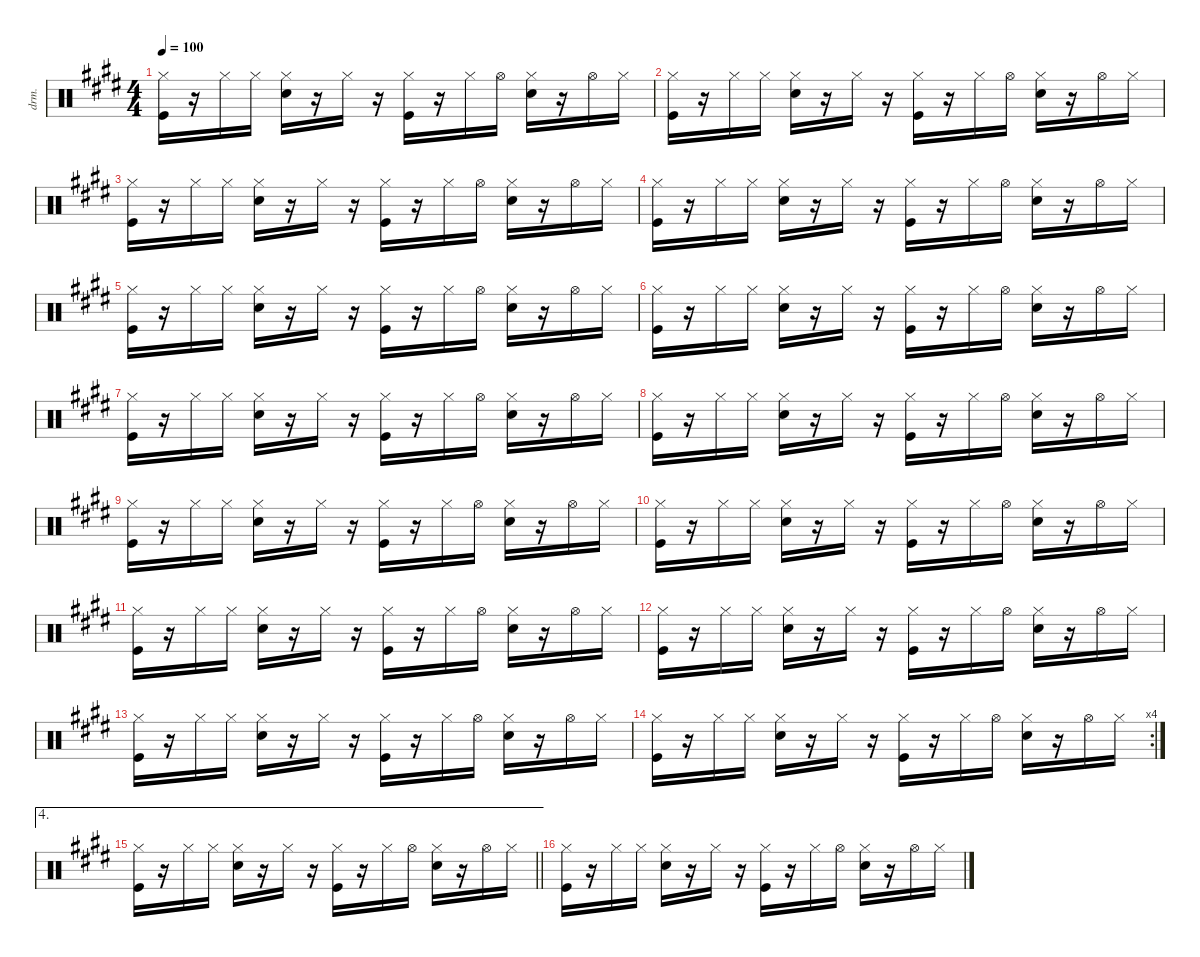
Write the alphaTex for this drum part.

\defaultSystemsLayout 4
\hideDynamics
\bracketExtendMode nobrackets
\otherSystemsTrackNameOrientation horizontal
\track ("Drums" "drm.") {instrument percussion}
\staff {score}
\articulation defaults
\ts (4 4)
\tempo 100
\clef neutral
\ks e
("Hi-Hat (closed)"{acc forcenatural} "Kick (hit)"{acc forcenatural}).16{dy f beam Down} r.16{beam Down} "Hi-Hat (closed)"{acc forcenatural}.16{beam Down} "Hi-Hat (closed)"{acc forcenatural}.16{beam Down} ("Hi-Hat (closed)"{acc forcenatural} "Snare (hit) 2"{acc forcenatural}).16{beam Down} r.16{beam Down} "Hi-Hat (closed)"{acc forcenatural}.16{beam Down} r.16{beam Down} ("Hi-Hat (closed)"{acc forcenatural} "Kick (hit)"{acc forcenatural}).16{beam Down} r.16{beam Down} "Hi-Hat (closed)"{acc forcenatural}.16{beam Down} "Hi-Hat (open)"{acc forcenatural}.16{beam Down} ("Hi-Hat (closed)"{acc forcenatural} "Snare (hit) 2"{acc forcenatural}).16{beam Down} r.16{beam Down} "Hi-Hat (open)"{acc forcenatural}.16{beam Down} "Hi-Hat (closed)"{acc forcenatural}.16{beam Down} |
("Hi-Hat (closed)"{acc forcenatural} "Kick (hit)"{acc forcenatural}).16{beam Down} r.16{beam Down} "Hi-Hat (closed)"{acc forcenatural}.16{beam Down} "Hi-Hat (closed)"{acc forcenatural}.16{beam Down} ("Hi-Hat (closed)"{acc forcenatural} "Snare (hit) 2"{acc forcenatural}).16{beam Down} r.16{beam Down} "Hi-Hat (closed)"{acc forcenatural}.16{beam Down} r.16{beam Down} ("Hi-Hat (closed)"{acc forcenatural} "Kick (hit)"{acc forcenatural}).16{beam Down} r.16{beam Down} "Hi-Hat (closed)"{acc forcenatural}.16{beam Down} "Hi-Hat (open)"{acc forcenatural}.16{beam Down} ("Hi-Hat (closed)"{acc forcenatural} "Snare (hit) 2"{acc forcenatural}).16{beam Down} r.16{beam Down} "Hi-Hat (open)"{acc forcenatural}.16{beam Down} "Hi-Hat (closed)"{acc forcenatural}.16{beam Down} |
("Hi-Hat (closed)"{acc forcenatural} "Kick (hit)"{acc forcenatural}).16{beam Down} r.16{beam Down} "Hi-Hat (closed)"{acc forcenatural}.16{beam Down} "Hi-Hat (closed)"{acc forcenatural}.16{beam Down} ("Hi-Hat (closed)"{acc forcenatural} "Snare (hit) 2"{acc forcenatural}).16{beam Down} r.16{beam Down} "Hi-Hat (closed)"{acc forcenatural}.16{beam Down} r.16{beam Down} ("Hi-Hat (closed)"{acc forcenatural} "Kick (hit)"{acc forcenatural}).16{beam Down} r.16{beam Down} "Hi-Hat (closed)"{acc forcenatural}.16{beam Down} "Hi-Hat (open)"{acc forcenatural}.16{beam Down} ("Hi-Hat (closed)"{acc forcenatural} "Snare (hit) 2"{acc forcenatural}).16{beam Down} r.16{beam Down} "Hi-Hat (open)"{acc forcenatural}.16{beam Down} "Hi-Hat (closed)"{acc forcenatural}.16{beam Down} |
("Hi-Hat (closed)"{acc forcenatural} "Kick (hit)"{acc forcenatural}).16{beam Down} r.16{beam Down} "Hi-Hat (closed)"{acc forcenatural}.16{beam Down} "Hi-Hat (closed)"{acc forcenatural}.16{beam Down} ("Hi-Hat (closed)"{acc forcenatural} "Snare (hit) 2"{acc forcenatural}).16{beam Down} r.16{beam Down} "Hi-Hat (closed)"{acc forcenatural}.16{beam Down} r.16{beam Down} ("Hi-Hat (closed)"{acc forcenatural} "Kick (hit)"{acc forcenatural}).16{beam Down} r.16{beam Down} "Hi-Hat (closed)"{acc forcenatural}.16{beam Down} "Hi-Hat (open)"{acc forcenatural}.16{beam Down} ("Hi-Hat (closed)"{acc forcenatural} "Snare (hit) 2"{acc forcenatural}).16{beam Down} r.16{beam Down} "Hi-Hat (open)"{acc forcenatural}.16{beam Down} "Hi-Hat (closed)"{acc forcenatural}.16{beam Down} |
("Hi-Hat (closed)"{acc forcenatural} "Kick (hit)"{acc forcenatural}).16{beam Down} r.16{beam Down} "Hi-Hat (closed)"{acc forcenatural}.16{beam Down} "Hi-Hat (closed)"{acc forcenatural}.16{beam Down} ("Hi-Hat (closed)"{acc forcenatural} "Snare (hit) 2"{acc forcenatural}).16{beam Down} r.16{beam Down} "Hi-Hat (closed)"{acc forcenatural}.16{beam Down} r.16{beam Down} ("Hi-Hat (closed)"{acc forcenatural} "Kick (hit)"{acc forcenatural}).16{beam Down} r.16{beam Down} "Hi-Hat (closed)"{acc forcenatural}.16{beam Down} "Hi-Hat (open)"{acc forcenatural}.16{beam Down} ("Hi-Hat (closed)"{acc forcenatural} "Snare (hit) 2"{acc forcenatural}).16{beam Down} r.16{beam Down} "Hi-Hat (open)"{acc forcenatural}.16{beam Down} "Hi-Hat (closed)"{acc forcenatural}.16{beam Down} |
("Hi-Hat (closed)"{acc forcenatural} "Kick (hit)"{acc forcenatural}).16{beam Down} r.16{beam Down} "Hi-Hat (closed)"{acc forcenatural}.16{beam Down} "Hi-Hat (closed)"{acc forcenatural}.16{beam Down} ("Hi-Hat (closed)"{acc forcenatural} "Snare (hit) 2"{acc forcenatural}).16{beam Down} r.16{beam Down} "Hi-Hat (closed)"{acc forcenatural}.16{beam Down} r.16{beam Down} ("Hi-Hat (closed)"{acc forcenatural} "Kick (hit)"{acc forcenatural}).16{beam Down} r.16{beam Down} "Hi-Hat (closed)"{acc forcenatural}.16{beam Down} "Hi-Hat (open)"{acc forcenatural}.16{beam Down} ("Hi-Hat (closed)"{acc forcenatural} "Snare (hit) 2"{acc forcenatural}).16{beam Down} r.16{beam Down} "Hi-Hat (open)"{acc forcenatural}.16{beam Down} "Hi-Hat (closed)"{acc forcenatural}.16{beam Down} |
("Hi-Hat (closed)"{acc forcenatural} "Kick (hit)"{acc forcenatural}).16{beam Down} r.16{beam Down} "Hi-Hat (closed)"{acc forcenatural}.16{beam Down} "Hi-Hat (closed)"{acc forcenatural}.16{beam Down} ("Hi-Hat (closed)"{acc forcenatural} "Snare (hit) 2"{acc forcenatural}).16{beam Down} r.16{beam Down} "Hi-Hat (closed)"{acc forcenatural}.16{beam Down} r.16{beam Down} ("Hi-Hat (closed)"{acc forcenatural} "Kick (hit)"{acc forcenatural}).16{beam Down} r.16{beam Down} "Hi-Hat (closed)"{acc forcenatural}.16{beam Down} "Hi-Hat (open)"{acc forcenatural}.16{beam Down} ("Hi-Hat (closed)"{acc forcenatural} "Snare (hit) 2"{acc forcenatural}).16{beam Down} r.16{beam Down} "Hi-Hat (open)"{acc forcenatural}.16{beam Down} "Hi-Hat (closed)"{acc forcenatural}.16{beam Down} |
("Hi-Hat (closed)"{acc forcenatural} "Kick (hit)"{acc forcenatural}).16{beam Down} r.16{beam Down} "Hi-Hat (closed)"{acc forcenatural}.16{beam Down} "Hi-Hat (closed)"{acc forcenatural}.16{beam Down} ("Hi-Hat (closed)"{acc forcenatural} "Snare (hit) 2"{acc forcenatural}).16{beam Down} r.16{beam Down} "Hi-Hat (closed)"{acc forcenatural}.16{beam Down} r.16{beam Down} ("Hi-Hat (closed)"{acc forcenatural} "Kick (hit)"{acc forcenatural}).16{beam Down} r.16{beam Down} "Hi-Hat (closed)"{acc forcenatural}.16{beam Down} "Hi-Hat (open)"{acc forcenatural}.16{beam Down} ("Hi-Hat (closed)"{acc forcenatural} "Snare (hit) 2"{acc forcenatural}).16{beam Down} r.16{beam Down} "Hi-Hat (open)"{acc forcenatural}.16{beam Down} "Hi-Hat (closed)"{acc forcenatural}.16{beam Down} |
("Hi-Hat (closed)"{acc forcenatural} "Kick (hit)"{acc forcenatural}).16{beam Down} r.16{beam Down} "Hi-Hat (closed)"{acc forcenatural}.16{beam Down} "Hi-Hat (closed)"{acc forcenatural}.16{beam Down} ("Hi-Hat (closed)"{acc forcenatural} "Snare (hit) 2"{acc forcenatural}).16{beam Down} r.16{beam Down} "Hi-Hat (closed)"{acc forcenatural}.16{beam Down} r.16{beam Down} ("Hi-Hat (closed)"{acc forcenatural} "Kick (hit)"{acc forcenatural}).16{beam Down} r.16{beam Down} "Hi-Hat (closed)"{acc forcenatural}.16{beam Down} "Hi-Hat (open)"{acc forcenatural}.16{beam Down} ("Hi-Hat (closed)"{acc forcenatural} "Snare (hit) 2"{acc forcenatural}).16{beam Down} r.16{beam Down} "Hi-Hat (open)"{acc forcenatural}.16{beam Down} "Hi-Hat (closed)"{acc forcenatural}.16{beam Down} |
("Hi-Hat (closed)"{acc forcenatural} "Kick (hit)"{acc forcenatural}).16{beam Down} r.16{beam Down} "Hi-Hat (closed)"{acc forcenatural}.16{beam Down} "Hi-Hat (closed)"{acc forcenatural}.16{beam Down} ("Hi-Hat (closed)"{acc forcenatural} "Snare (hit) 2"{acc forcenatural}).16{beam Down} r.16{beam Down} "Hi-Hat (closed)"{acc forcenatural}.16{beam Down} r.16{beam Down} ("Hi-Hat (closed)"{acc forcenatural} "Kick (hit)"{acc forcenatural}).16{beam Down} r.16{beam Down} "Hi-Hat (closed)"{acc forcenatural}.16{beam Down} "Hi-Hat (open)"{acc forcenatural}.16{beam Down} ("Hi-Hat (closed)"{acc forcenatural} "Snare (hit) 2"{acc forcenatural}).16{beam Down} r.16{beam Down} "Hi-Hat (open)"{acc forcenatural}.16{beam Down} "Hi-Hat (closed)"{acc forcenatural}.16{beam Down} |
("Hi-Hat (closed)"{acc forcenatural} "Kick (hit)"{acc forcenatural}).16{beam Down} r.16{beam Down} "Hi-Hat (closed)"{acc forcenatural}.16{beam Down} "Hi-Hat (closed)"{acc forcenatural}.16{beam Down} ("Hi-Hat (closed)"{acc forcenatural} "Snare (hit) 2"{acc forcenatural}).16{beam Down} r.16{beam Down} "Hi-Hat (closed)"{acc forcenatural}.16{beam Down} r.16{beam Down} ("Hi-Hat (closed)"{acc forcenatural} "Kick (hit)"{acc forcenatural}).16{beam Down} r.16{beam Down} "Hi-Hat (closed)"{acc forcenatural}.16{beam Down} "Hi-Hat (open)"{acc forcenatural}.16{beam Down} ("Hi-Hat (closed)"{acc forcenatural} "Snare (hit) 2"{acc forcenatural}).16{beam Down} r.16{beam Down} "Hi-Hat (open)"{acc forcenatural}.16{beam Down} "Hi-Hat (closed)"{acc forcenatural}.16{beam Down} |
("Hi-Hat (closed)"{acc forcenatural} "Kick (hit)"{acc forcenatural}).16{beam Down} r.16{beam Down} "Hi-Hat (closed)"{acc forcenatural}.16{beam Down} "Hi-Hat (closed)"{acc forcenatural}.16{beam Down} ("Hi-Hat (closed)"{acc forcenatural} "Snare (hit) 2"{acc forcenatural}).16{beam Down} r.16{beam Down} "Hi-Hat (closed)"{acc forcenatural}.16{beam Down} r.16{beam Down} ("Hi-Hat (closed)"{acc forcenatural} "Kick (hit)"{acc forcenatural}).16{beam Down} r.16{beam Down} "Hi-Hat (closed)"{acc forcenatural}.16{beam Down} "Hi-Hat (open)"{acc forcenatural}.16{beam Down} ("Hi-Hat (closed)"{acc forcenatural} "Snare (hit) 2"{acc forcenatural}).16{beam Down} r.16{beam Down} "Hi-Hat (open)"{acc forcenatural}.16{beam Down} "Hi-Hat (closed)"{acc forcenatural}.16{beam Down} |
("Hi-Hat (closed)"{acc forcenatural} "Kick (hit)"{acc forcenatural}).16{beam Down} r.16{beam Down} "Hi-Hat (closed)"{acc forcenatural}.16{beam Down} "Hi-Hat (closed)"{acc forcenatural}.16{beam Down} ("Hi-Hat (closed)"{acc forcenatural} "Snare (hit) 2"{acc forcenatural}).16{beam Down} r.16{beam Down} "Hi-Hat (closed)"{acc forcenatural}.16{beam Down} r.16{beam Down} ("Hi-Hat (closed)"{acc forcenatural} "Kick (hit)"{acc forcenatural}).16{beam Down} r.16{beam Down} "Hi-Hat (closed)"{acc forcenatural}.16{beam Down} "Hi-Hat (open)"{acc forcenatural}.16{beam Down} ("Hi-Hat (closed)"{acc forcenatural} "Snare (hit) 2"{acc forcenatural}).16{beam Down} r.16{beam Down} "Hi-Hat (open)"{acc forcenatural}.16{beam Down} "Hi-Hat (closed)"{acc forcenatural}.16{beam Down} |
\rc 4
("Hi-Hat (closed)"{acc forcenatural} "Kick (hit)"{acc forcenatural}).16{beam Down} r.16{beam Down} "Hi-Hat (closed)"{acc forcenatural}.16{beam Down} "Hi-Hat (closed)"{acc forcenatural}.16{beam Down} ("Hi-Hat (closed)"{acc forcenatural} "Snare (hit) 2"{acc forcenatural}).16{beam Down} r.16{beam Down} "Hi-Hat (closed)"{acc forcenatural}.16{beam Down} r.16{beam Down} ("Hi-Hat (closed)"{acc forcenatural} "Kick (hit)"{acc forcenatural}).16{beam Down} r.16{beam Down} "Hi-Hat (closed)"{acc forcenatural}.16{beam Down} "Hi-Hat (open)"{acc forcenatural}.16{beam Down} ("Hi-Hat (closed)"{acc forcenatural} "Snare (hit) 2"{acc forcenatural}).16{beam Down} r.16{beam Down} "Hi-Hat (open)"{acc forcenatural}.16{beam Down} "Hi-Hat (closed)"{acc forcenatural}.16{beam Down} |
\ae 4
\barLineRight lightlight
("Hi-Hat (closed)"{acc forcenatural} "Kick (hit)"{acc forcenatural}).16{beam Down} r.16{beam Down} "Hi-Hat (closed)"{acc forcenatural}.16{beam Down} "Hi-Hat (closed)"{acc forcenatural}.16{beam Down} ("Hi-Hat (closed)"{acc forcenatural} "Snare (hit) 2"{acc forcenatural}).16{beam Down} r.16{beam Down} "Hi-Hat (closed)"{acc forcenatural}.16{beam Down} r.16{beam Down} ("Hi-Hat (closed)"{acc forcenatural} "Kick (hit)"{acc forcenatural}).16{beam Down} r.16{beam Down} "Hi-Hat (closed)"{acc forcenatural}.16{beam Down} "Hi-Hat (open)"{acc forcenatural}.16{beam Down} ("Hi-Hat (closed)"{acc forcenatural} "Snare (hit) 2"{acc forcenatural}).16{beam Down} r.16{beam Down} "Hi-Hat (open)"{acc forcenatural}.16{beam Down} "Hi-Hat (closed)"{acc forcenatural}.16{beam Down} |
("Hi-Hat (closed)"{acc forcenatural} "Kick (hit)"{acc forcenatural}).16{beam Down} r.16{beam Down} "Hi-Hat (closed)"{acc forcenatural}.16{beam Down} "Hi-Hat (closed)"{acc forcenatural}.16{beam Down} ("Hi-Hat (closed)"{acc forcenatural} "Snare (hit) 2"{acc forcenatural}).16{beam Down} r.16{beam Down} "Hi-Hat (closed)"{acc forcenatural}.16{beam Down} r.16{beam Down} ("Hi-Hat (closed)"{acc forcenatural} "Kick (hit)"{acc forcenatural}).16{beam Down} r.16{beam Down} "Hi-Hat (closed)"{acc forcenatural}.16{beam Down} "Hi-Hat (open)"{acc forcenatural}.16{beam Down} ("Hi-Hat (closed)"{acc forcenatural} "Snare (hit) 2"{acc forcenatural}).16{beam Down} r.16{beam Down} "Hi-Hat (open)"{acc forcenatural}.16{beam Down} "Hi-Hat (closed)"{acc forcenatural}.16{beam Down}
